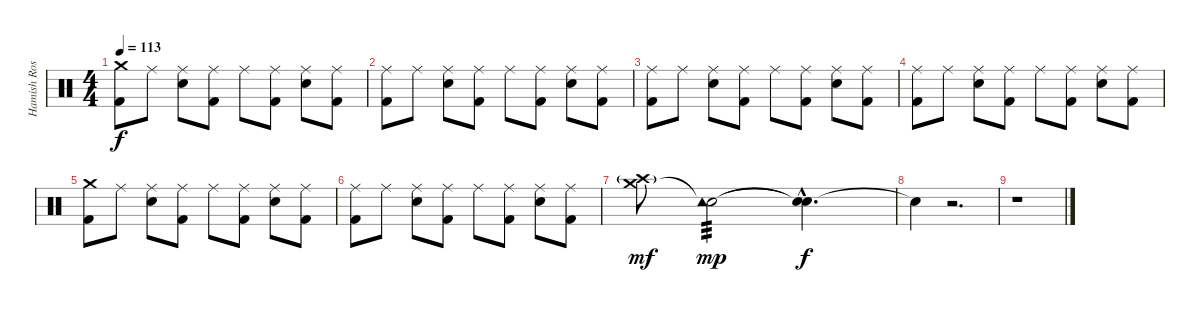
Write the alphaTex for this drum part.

\track ("Hamish Rosser" "Hamish Ros") {instrument percussion}
\staff {score}
\articulation defaults
\ts (4 4)
\tempo 113
\clef neutral
\ks c
("Crash medium (hit)" "Kick (hit) 2").8{dy f} "Ride (middle)".8 ("Ride (middle)" "Electric Snare (hit)").8 ("Ride (middle)" "Kick (hit) 2").8 "Ride (middle)".8 ("Ride (middle)" "Kick (hit) 2").8 ("Ride (middle)" "Electric Snare (hit)").8 ("Ride (middle)" "Kick (hit) 2").8 |
("Ride (middle)" "Kick (hit) 2").8 "Ride (middle)".8 ("Ride (middle)" "Electric Snare (hit)").8 ("Ride (middle)" "Kick (hit) 2").8 "Ride (middle)".8 ("Ride (middle)" "Kick (hit) 2").8 ("Ride (middle)" "Electric Snare (hit)").8 ("Ride (middle)" "Kick (hit) 2").8 |
("Ride (middle)" "Kick (hit) 2").8 "Ride (middle)".8 ("Ride (middle)" "Electric Snare (hit)").8 ("Ride (middle)" "Kick (hit) 2").8 "Ride (middle)".8 ("Ride (middle)" "Kick (hit) 2").8 ("Ride (middle)" "Electric Snare (hit)").8 ("Ride (middle)" "Kick (hit) 2").8 |
("Ride (middle)" "Kick (hit) 2").8 "Ride (middle)".8 ("Ride (middle)" "Electric Snare (hit)").8 ("Ride (middle)" "Kick (hit) 2").8 "Ride (middle)".8 ("Ride (middle)" "Kick (hit) 2").8 ("Ride (middle)" "Electric Snare (hit)").8 ("Ride (middle)" "Kick (hit) 2").8 |
("Crash medium (hit)" "Kick (hit) 2").8 "Ride (middle)".8 ("Ride (middle)" "Electric Snare (hit)").8 ("Ride (middle)" "Kick (hit) 2").8 "Ride (middle)".8 ("Ride (middle)" "Kick (hit) 2").8 ("Ride (middle)" "Electric Snare (hit)").8 ("Ride (middle)" "Kick (hit) 2").8 |
("Ride (middle)" "Kick (hit) 2").8 "Ride (middle)".8 ("Ride (middle)" "Electric Snare (hit)").8 ("Ride (middle)" "Kick (hit) 2").8 "Ride (middle)".8 ("Ride (middle)" "Kick (hit) 2").8 ("Ride (middle)" "Electric Snare (hit)").8 ("Ride (middle)" "Kick (hit) 2").8 |
("Crash medium (hit)" "Crash high (hit)"{g}).8{dy mf} ("Snare (hit)"{t} "Tambourine (hit)").2{tp 3 dy mp} ("Snare (hit)"{hac t} "Snare (hit)"{hac t}).4{d dy f} |
"Snare (hit)"{t}.4 r.2{d} |
r.1
